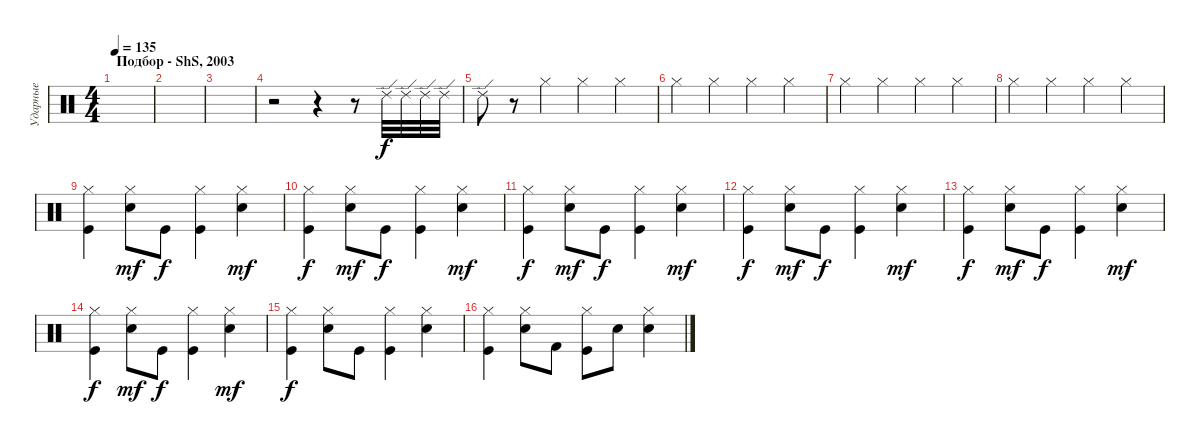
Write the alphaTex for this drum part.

\track ("Ударные" "Ударные") {instrument percussion}
\staff {score}
\articulation defaults
\ts (4 4)
\section ("" "Подбор - ShS, 2003")
\tempo 135
\clef neutral
\ks c
|
|
|
r.2 r.4 r.8 "Ride (edge) 2".32 "Ride (edge) 2".32 "Ride (edge) 2".32 "Ride (edge) 2".32 |
"Ride (edge) 2".8 r.8 "Hi-Hat (closed)".4 "Hi-Hat (closed)".4 "Hi-Hat (closed)".4 |
"Hi-Hat (closed)".4{volume 11} "Hi-Hat (closed)".4 "Hi-Hat (closed)".4 "Hi-Hat (closed)".4 |
"Hi-Hat (closed)".4{volume 12} "Hi-Hat (closed)".4 "Hi-Hat (closed)".4 "Hi-Hat (closed)".4 |
"Hi-Hat (closed)".4{volume 13} "Hi-Hat (closed)".4 "Hi-Hat (closed)".4 "Hi-Hat (closed)".4 |
("Hi-Hat (closed)" "Kick (hit)").4{volume 14} ("Hi-Hat (closed)" "Electric Snare (hit)").8{dy mf} "Kick (hit)".8{dy f} ("Hi-Hat (closed)" "Kick (hit)").4 ("Hi-Hat (closed)" "Electric Snare (hit)").4{dy mf} |
("Hi-Hat (closed)" "Kick (hit)").4{dy f} ("Hi-Hat (closed)" "Electric Snare (hit)").8{dy mf} "Kick (hit)".8{dy f} ("Hi-Hat (closed)" "Kick (hit)").4 ("Hi-Hat (closed)" "Electric Snare (hit)").4{dy mf} |
("Hi-Hat (closed)" "Kick (hit)").4{dy f} ("Hi-Hat (closed)" "Electric Snare (hit)").8{dy mf} "Kick (hit)".8{dy f} ("Hi-Hat (closed)" "Kick (hit)").4 ("Hi-Hat (closed)" "Electric Snare (hit)").4{dy mf} |
("Hi-Hat (closed)" "Kick (hit)").4{dy f} ("Hi-Hat (closed)" "Electric Snare (hit)").8{dy mf} "Kick (hit)".8{dy f} ("Hi-Hat (closed)" "Kick (hit)").4 ("Hi-Hat (closed)" "Electric Snare (hit)").4{dy mf} |
("Hi-Hat (closed)" "Kick (hit)").4{dy f} ("Hi-Hat (closed)" "Electric Snare (hit)").8{dy mf} "Kick (hit)".8{dy f} ("Hi-Hat (closed)" "Kick (hit)").4 ("Hi-Hat (closed)" "Electric Snare (hit)").4{dy mf} |
("Hi-Hat (closed)" "Kick (hit)").4{dy f} ("Hi-Hat (closed)" "Electric Snare (hit)").8{dy mf} "Kick (hit)".8{dy f} ("Hi-Hat (closed)" "Kick (hit)").4 ("Hi-Hat (closed)" "Electric Snare (hit)").4{dy mf} |
("Hi-Hat (closed)" "Kick (hit)").4{dy f} ("Hi-Hat (closed)" "Electric Snare (hit)").8 "Kick (hit)".8 ("Hi-Hat (closed)" "Kick (hit)").4 ("Hi-Hat (closed)" "Electric Snare (hit)").4 |
("Hi-Hat (closed)" "Kick (hit)").4 ("Hi-Hat (closed)" "Electric Snare (hit)").8 "Kick (hit) 2".8 ("Hi-Hat (closed)" "Kick (hit)").8 "Electric Snare (hit)".8 ("Hi-Hat (closed)" "Electric Snare (hit)").4
